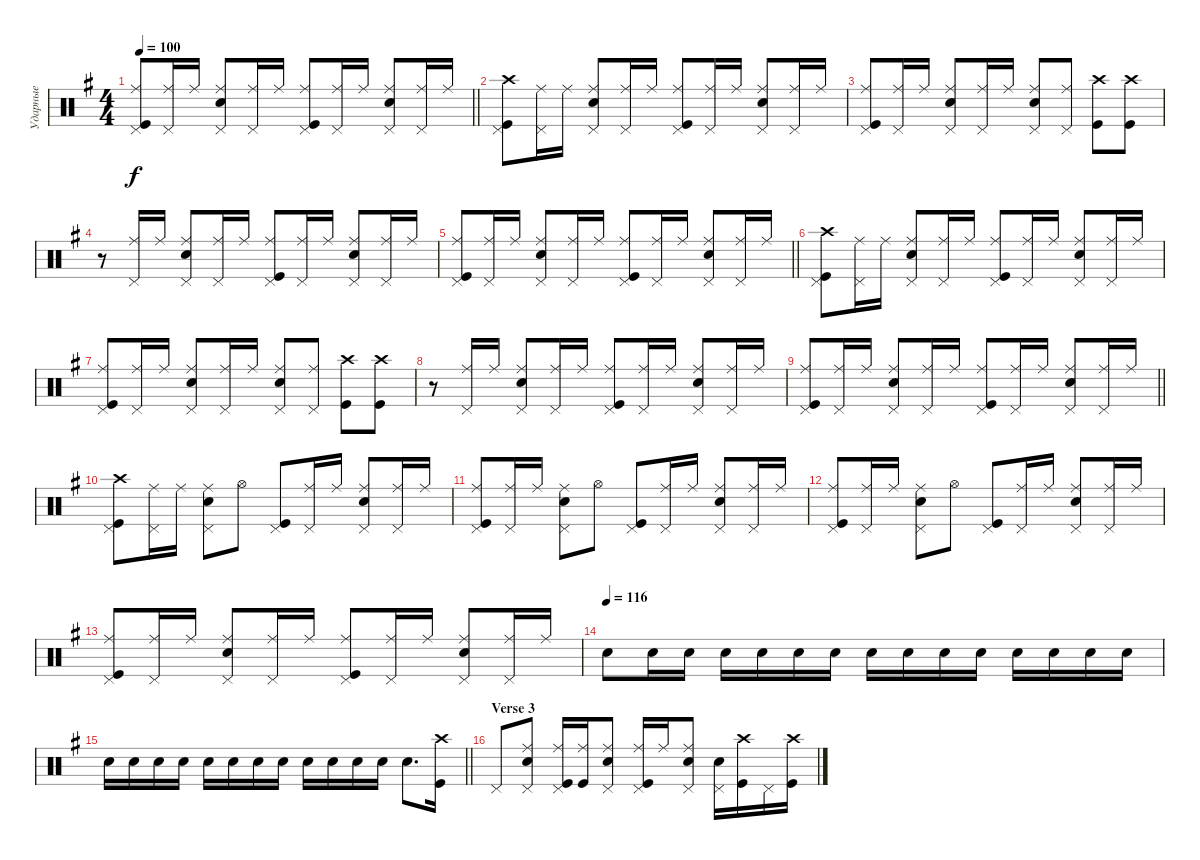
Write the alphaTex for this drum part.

\track ("Ударные" "Ударные") {instrument percussion}
\staff {score}
\articulation defaults
\ts (4 4)
\tempo 100
\clef neutral
\barLineRight lightlight
\ks eminor
("Kick (hit)" "Ride (middle)" "Pedal Hi-Hat (hit)").8{dy f} ("Ride (middle)" "Pedal Hi-Hat (hit)").16 "Ride (middle)".16 ("Snare (hit) 2" "Pedal Hi-Hat (hit)" "Ride (middle)").8 ("Ride (middle)" "Pedal Hi-Hat (hit)").16 "Ride (middle)".16 ("Ride (middle)" "Kick (hit)" "Pedal Hi-Hat (hit)").8 ("Ride (middle)" "Pedal Hi-Hat (hit)").16 "Ride (middle)".16 ("Ride (middle)" "Snare (hit) 2" "Pedal Hi-Hat (hit)").8 ("Ride (middle)" "Pedal Hi-Hat (hit)").16 "Ride (middle)".16 |
("Kick (hit)" "Crash high (hit)" "Pedal Hi-Hat (hit)").8 ("Ride (middle)" "Pedal Hi-Hat (hit)").16 "Ride (middle)".16 ("Snare (hit) 2" "Pedal Hi-Hat (hit)" "Ride (middle)").8 ("Ride (middle)" "Pedal Hi-Hat (hit)").16 "Ride (middle)".16 ("Ride (middle)" "Kick (hit)" "Pedal Hi-Hat (hit)").8 ("Ride (middle)" "Pedal Hi-Hat (hit)").16 "Ride (middle)".16 ("Ride (middle)" "Snare (hit) 2" "Pedal Hi-Hat (hit)").8 ("Ride (middle)" "Pedal Hi-Hat (hit)").16 "Ride (middle)".16 |
("Kick (hit)" "Ride (middle)" "Pedal Hi-Hat (hit)").8 ("Ride (middle)" "Pedal Hi-Hat (hit)").16 "Ride (middle)".16 ("Ride (middle)" "Snare (hit) 2" "Pedal Hi-Hat (hit)").8 ("Ride (middle)" "Pedal Hi-Hat (hit)").16 "Ride (middle)".16 ("Snare (hit) 2" "Ride (middle)" "Pedal Hi-Hat (hit)").8 ("Ride (middle)" "Pedal Hi-Hat (hit)").8 ("Kick (hit)" "Crash high (hit)").8 ("Crash high (hit)" "Kick (hit)").8 |
r.8 ("Ride (middle)" "Pedal Hi-Hat (hit)").16 "Ride (middle)".16 ("Snare (hit) 2" "Pedal Hi-Hat (hit)" "Ride (middle)").8 ("Ride (middle)" "Pedal Hi-Hat (hit)").16 "Ride (middle)".16 ("Ride (middle)" "Kick (hit)" "Pedal Hi-Hat (hit)").8 ("Ride (middle)" "Pedal Hi-Hat (hit)").16 "Ride (middle)".16 ("Ride (middle)" "Snare (hit) 2" "Pedal Hi-Hat (hit)").8 ("Ride (middle)" "Pedal Hi-Hat (hit)").16 "Ride (middle)".16 |
\barLineRight lightlight
("Kick (hit)" "Ride (middle)" "Pedal Hi-Hat (hit)").8 ("Ride (middle)" "Pedal Hi-Hat (hit)").16 "Ride (middle)".16 ("Snare (hit) 2" "Pedal Hi-Hat (hit)" "Ride (middle)").8 ("Ride (middle)" "Pedal Hi-Hat (hit)").16 "Ride (middle)".16 ("Ride (middle)" "Kick (hit)" "Pedal Hi-Hat (hit)").8 ("Ride (middle)" "Pedal Hi-Hat (hit)").16 "Ride (middle)".16 ("Ride (middle)" "Snare (hit) 2" "Pedal Hi-Hat (hit)").8 ("Ride (middle)" "Pedal Hi-Hat (hit)").16 "Ride (middle)".16 |
("Kick (hit)" "Crash high (hit)" "Pedal Hi-Hat (hit)").8 ("Ride (middle)" "Pedal Hi-Hat (hit)").16 "Ride (middle)".16 ("Snare (hit) 2" "Pedal Hi-Hat (hit)" "Ride (middle)").8 ("Ride (middle)" "Pedal Hi-Hat (hit)").16 "Ride (middle)".16 ("Ride (middle)" "Kick (hit)" "Pedal Hi-Hat (hit)").8 ("Ride (middle)" "Pedal Hi-Hat (hit)").16 "Ride (middle)".16 ("Ride (middle)" "Snare (hit) 2" "Pedal Hi-Hat (hit)").8 ("Ride (middle)" "Pedal Hi-Hat (hit)").16 "Ride (middle)".16 |
("Kick (hit)" "Ride (middle)" "Pedal Hi-Hat (hit)").8 ("Ride (middle)" "Pedal Hi-Hat (hit)").16 "Ride (middle)".16 ("Ride (middle)" "Snare (hit) 2" "Pedal Hi-Hat (hit)").8 ("Ride (middle)" "Pedal Hi-Hat (hit)").16 "Ride (middle)".16 ("Snare (hit) 2" "Ride (middle)" "Pedal Hi-Hat (hit)").8 ("Ride (middle)" "Pedal Hi-Hat (hit)").8 ("Kick (hit)" "Crash high (hit)").8 ("Crash high (hit)" "Kick (hit)").8 |
r.8 ("Ride (middle)" "Pedal Hi-Hat (hit)").16 "Ride (middle)".16 ("Snare (hit) 2" "Pedal Hi-Hat (hit)" "Ride (middle)").8 ("Ride (middle)" "Pedal Hi-Hat (hit)").16 "Ride (middle)".16 ("Ride (middle)" "Kick (hit)" "Pedal Hi-Hat (hit)").8 ("Ride (middle)" "Pedal Hi-Hat (hit)").16 "Ride (middle)".16 ("Ride (middle)" "Snare (hit) 2" "Pedal Hi-Hat (hit)").8 ("Ride (middle)" "Pedal Hi-Hat (hit)").16 "Ride (middle)".16 |
\barLineRight lightlight
("Kick (hit)" "Ride (middle)" "Pedal Hi-Hat (hit)").8 ("Ride (middle)" "Pedal Hi-Hat (hit)").16 "Ride (middle)".16 ("Snare (hit) 2" "Pedal Hi-Hat (hit)" "Ride (middle)").8 ("Ride (middle)" "Pedal Hi-Hat (hit)").16 "Ride (middle)".16 ("Ride (middle)" "Kick (hit)" "Pedal Hi-Hat (hit)").8 ("Ride (middle)" "Pedal Hi-Hat (hit)").16 "Ride (middle)".16 ("Ride (middle)" "Snare (hit) 2" "Pedal Hi-Hat (hit)").8 ("Ride (middle)" "Pedal Hi-Hat (hit)").16 "Ride (middle)".16 |
("Kick (hit)" "Crash high (hit)" "Pedal Hi-Hat (hit)").8 ("Ride (middle)" "Pedal Hi-Hat (hit)").16 "Ride (middle)".16 ("Snare (hit) 2" "Pedal Hi-Hat (hit)" "Ride (middle)").8 "Hi-Hat (open)".8 ("Pedal Hi-Hat (hit)" "Kick (hit)").8 ("Ride (middle)" "Pedal Hi-Hat (hit)").16 "Ride (middle)".16 ("Ride (middle)" "Snare (hit) 2" "Pedal Hi-Hat (hit)").8 ("Ride (middle)" "Pedal Hi-Hat (hit)").16 "Ride (middle)".16 |
("Kick (hit)" "Ride (middle)" "Pedal Hi-Hat (hit)").8 ("Ride (middle)" "Pedal Hi-Hat (hit)").16 "Ride (middle)".16 ("Snare (hit) 2" "Pedal Hi-Hat (hit)" "Ride (middle)").8 "Hi-Hat (open)".8 ("Pedal Hi-Hat (hit)" "Kick (hit)").8 ("Ride (middle)" "Pedal Hi-Hat (hit)").16 "Ride (middle)".16 ("Ride (middle)" "Snare (hit) 2" "Pedal Hi-Hat (hit)").8 ("Ride (middle)" "Pedal Hi-Hat (hit)").16 "Ride (middle)".16 |
("Kick (hit)" "Ride (middle)" "Pedal Hi-Hat (hit)").8 ("Ride (middle)" "Pedal Hi-Hat (hit)").16 "Ride (middle)".16 ("Snare (hit) 2" "Pedal Hi-Hat (hit)" "Ride (middle)").8 "Hi-Hat (open)".8 ("Pedal Hi-Hat (hit)" "Kick (hit)").8 ("Ride (middle)" "Pedal Hi-Hat (hit)").16 "Ride (middle)".16 ("Ride (middle)" "Snare (hit) 2" "Pedal Hi-Hat (hit)").8 ("Ride (middle)" "Pedal Hi-Hat (hit)").16 "Ride (middle)".16 |
("Kick (hit)" "Ride (middle)" "Pedal Hi-Hat (hit)").8 ("Ride (middle)" "Pedal Hi-Hat (hit)").16 "Ride (middle)".16 ("Snare (hit) 2" "Pedal Hi-Hat (hit)" "Ride (middle)").8 ("Ride (middle)" "Pedal Hi-Hat (hit)").16 "Ride (middle)".16 ("Ride (middle)" "Kick (hit)" "Pedal Hi-Hat (hit)").8 ("Ride (middle)" "Pedal Hi-Hat (hit)").16 "Ride (middle)".16 ("Ride (middle)" "Snare (hit) 2" "Pedal Hi-Hat (hit)").8 ("Ride (middle)" "Pedal Hi-Hat (hit)").16 "Ride (middle)".16 |
\tempo (116)
"Snare (hit) 2".8 "Snare (hit) 2".16 "Snare (hit) 2".16 "Snare (hit) 2".16 "Snare (hit) 2".16 "Snare (hit) 2".16 "Snare (hit) 2".16 "Snare (hit) 2".16 "Snare (hit) 2".16 "Snare (hit) 2".16 "Snare (hit) 2".16 "Snare (hit) 2".16 "Snare (hit) 2".16 "Snare (hit) 2".16 "Snare (hit) 2".16 |
\barLineRight lightlight "Snare (hit) 2".16 "Snare (hit) 2".16 "Snare (hit) 2".16 "Snare (hit) 2".16 "Snare (hit) 2".16 "Snare (hit) 2".16 "Snare (hit) 2".16 "Snare (hit) 2".16 "Snare (hit) 2".16 "Snare (hit) 2".16 "Snare (hit) 2".16 "Snare (hit) 2".16 "Snare (hit) 2".8{d}
("Kick (hit)" "Crash high (hit)").16 |
\section ("" "Verse 3")
"Pedal Hi-Hat (hit)".8 ("Snare (hit) 2" "Pedal Hi-Hat (hit)" "Ride (middle)").8 ("Kick (hit)" "Pedal Hi-Hat (hit)" "Ride (middle)").16 ("Kick (hit)" "Ride (middle)").16 ("Snare (hit) 2" "Pedal Hi-Hat (hit)" "Ride (middle)").8 ("Pedal Hi-Hat (hit)" "Kick (hit)" "Ride (middle)").16 "Ride (middle)".16 ("Snare (hit) 2" "Pedal Hi-Hat (hit)" "Ride (middle)").8 ("Snare (hit) 2" "Pedal Hi-Hat (hit)").16 ("Kick (hit)" "Crash high (hit)").16 "Pedal Hi-Hat (hit)".16 ("Kick (hit)" "Crash high (hit)").16
